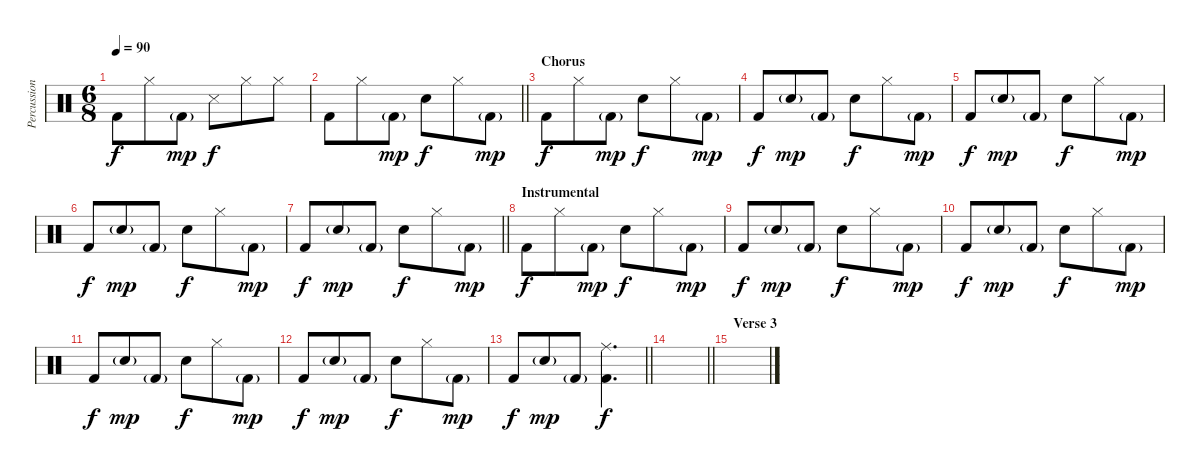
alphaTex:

\track ("Percussion" "Percussion") {instrument percussion}
\staff {score}
\articulation defaults
\ts (6 8)
\tempo 90
\clef neutral
\ks c "Kick (hit) 2".8{dy f} "Hi-Hat (closed)".8 "Kick (hit) 2"{g}.8{dy mp} "Snare (side stick) 3".8{dy f} "Hi-Hat (closed)".8 "Hi-Hat (closed)".8
|
\barLineRight lightlight "Kick (hit) 2".8 "Hi-Hat (closed)".8 "Kick (hit) 2"{g}.8{dy mp} "Snare (hit) 2".8{dy f} "Hi-Hat (closed)".8 "Kick (hit) 2"{g}.8{dy mp}
|
\section ("" "Chorus")
"Kick (hit) 2".8{dy f} "Hi-Hat (closed)".8 "Kick (hit) 2"{g}.8{dy mp} "Snare (hit) 2".8{dy f} "Hi-Hat (closed)".8 "Kick (hit) 2"{g}.8{dy mp} |
"Kick (hit) 2".8{dy f} "Snare (hit) 2"{g}.8{dy mp} "Kick (hit) 2"{g}.8 "Snare (hit) 2".8{dy f} "Hi-Hat (closed)".8 "Kick (hit) 2"{g}.8{dy mp} |
"Kick (hit) 2".8{dy f} "Snare (hit) 2"{g}.8{dy mp} "Kick (hit) 2"{g}.8 "Snare (hit) 2".8{dy f} "Hi-Hat (closed)".8 "Kick (hit) 2"{g}.8{dy mp} |
"Kick (hit) 2".8{dy f} "Snare (hit) 2"{g}.8{dy mp} "Kick (hit) 2"{g}.8 "Snare (hit) 2".8{dy f} "Hi-Hat (closed)".8 "Kick (hit) 2"{g}.8{dy mp} |
\barLineRight lightlight "Kick (hit) 2".8{dy f} "Snare (hit) 2"{g}.8{dy mp} "Kick (hit) 2"{g}.8 "Snare (hit) 2".8{dy f} "Hi-Hat (closed)".8 "Kick (hit) 2"{g}.8{dy mp}
|
\section ("" "Instrumental")
"Kick (hit) 2".8{dy f} "Hi-Hat (closed)".8 "Kick (hit) 2"{g}.8{dy mp} "Snare (hit) 2".8{dy f} "Hi-Hat (closed)".8 "Kick (hit) 2"{g}.8{dy mp} |
"Kick (hit) 2".8{dy f} "Snare (hit) 2"{g}.8{dy mp} "Kick (hit) 2"{g}.8 "Snare (hit) 2".8{dy f} "Hi-Hat (closed)".8 "Kick (hit) 2"{g}.8{dy mp} |
"Kick (hit) 2".8{dy f} "Snare (hit) 2"{g}.8{dy mp} "Kick (hit) 2"{g}.8 "Snare (hit) 2".8{dy f} "Hi-Hat (closed)".8 "Kick (hit) 2"{g}.8{dy mp} |
"Kick (hit) 2".8{dy f} "Snare (hit) 2"{g}.8{dy mp} "Kick (hit) 2"{g}.8 "Snare (hit) 2".8{dy f} "Hi-Hat (closed)".8 "Kick (hit) 2"{g}.8{dy mp} |
"Kick (hit) 2".8{dy f} "Snare (hit) 2"{g}.8{dy mp} "Kick (hit) 2"{g}.8 "Snare (hit) 2".8{dy f} "Hi-Hat (closed)".8 "Kick (hit) 2"{g}.8{dy mp} |
\barLineRight lightlight "Kick (hit) 2".8{dy f} "Snare (hit) 2"{g}.8{dy mp} "Kick (hit) 2"{g}.8
("Ride (middle)" "Kick (hit) 2").4{d dy f} |
\barLineRight lightlight
|
\section ("" "Verse 3")
